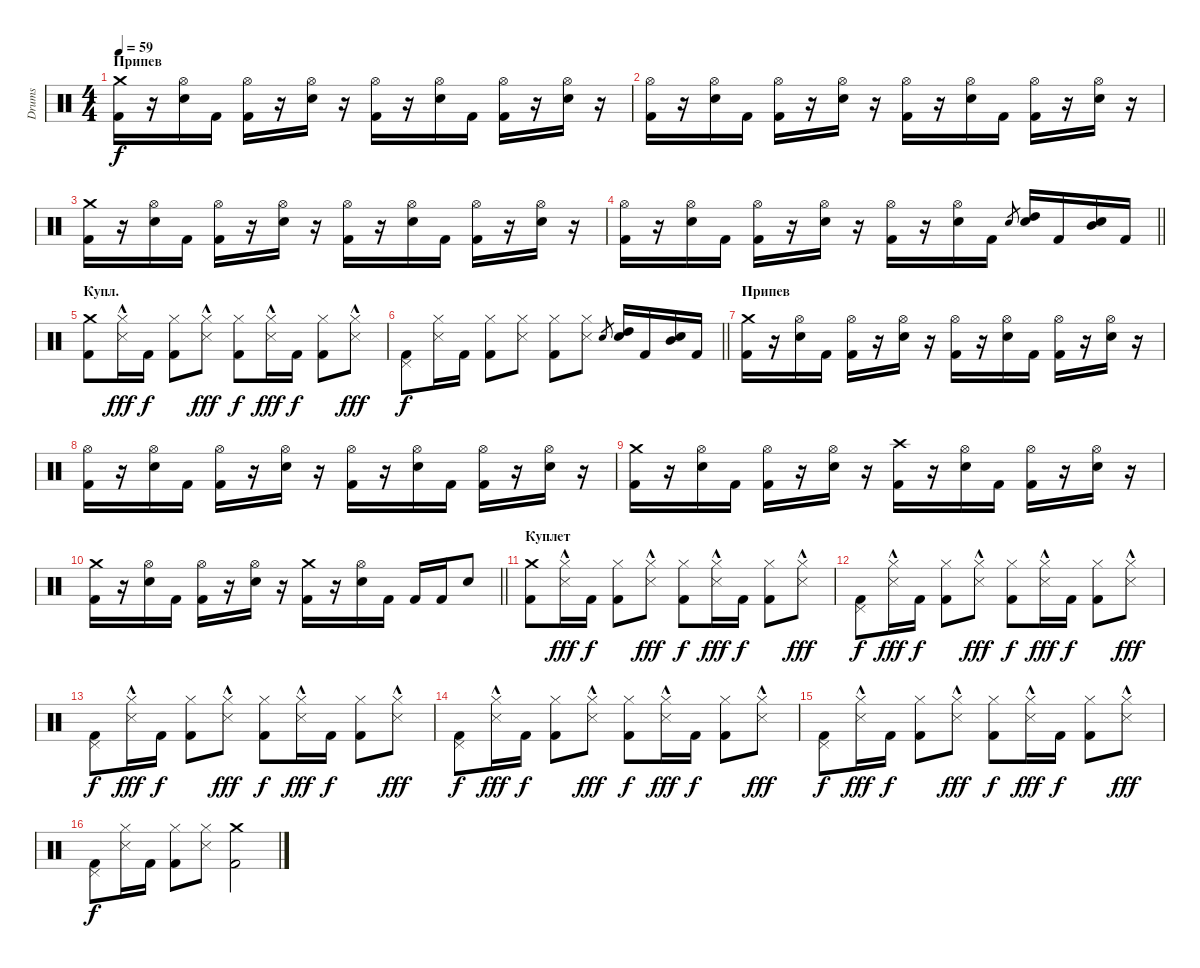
\track ("Drums" "Drums") {instrument percussion}
\staff {score}
\articulation defaults
\ts (4 4)
\section ("" "Припев")
\tempo 59
\clef neutral
\ks c
("Crash medium (hit)" "Kick (hit) 2").16{dy f} r.16 ("Hi-Hat (open)" "Snare (hit) 2").16 "Kick (hit) 2".16 ("Hi-Hat (open)" "Kick (hit) 2").16 r.16 ("Hi-Hat (open)" "Snare (hit) 2").16 r.16 ("Hi-Hat (open)" "Kick (hit) 2").16 r.16 ("Hi-Hat (open)" "Snare (hit) 2").16 "Kick (hit) 2".16 ("Hi-Hat (open)" "Kick (hit) 2").16 r.16 ("Hi-Hat (open)" "Snare (hit) 2").16 r.16 |
("Hi-Hat (open)" "Kick (hit) 2").16 r.16 ("Hi-Hat (open)" "Snare (hit) 2").16 "Kick (hit) 2".16 ("Hi-Hat (open)" "Kick (hit) 2").16 r.16 ("Hi-Hat (open)" "Snare (hit) 2").16 r.16 ("Hi-Hat (open)" "Kick (hit) 2").16 r.16 ("Hi-Hat (open)" "Snare (hit) 2").16 "Kick (hit) 2".16 ("Hi-Hat (open)" "Kick (hit) 2").16 r.16 ("Hi-Hat (open)" "Snare (hit) 2").16 r.16 |
("Crash medium (hit)" "Kick (hit) 2").16 r.16 ("Hi-Hat (open)" "Snare (hit) 2").16 "Kick (hit) 2".16 ("Hi-Hat (open)" "Kick (hit) 2").16 r.16 ("Hi-Hat (open)" "Snare (hit) 2").16 r.16 ("Hi-Hat (open)" "Kick (hit) 2").16 r.16 ("Hi-Hat (open)" "Snare (hit) 2").16 "Kick (hit) 2".16 ("Hi-Hat (open)" "Kick (hit) 2").16 r.16 ("Hi-Hat (open)" "Snare (hit) 2").16 r.16 |
\barLineRight lightlight
("Hi-Hat (open)" "Kick (hit) 2").16 r.16 ("Hi-Hat (open)" "Snare (hit) 2").16 "Kick (hit) 2".16 ("Hi-Hat (open)" "Kick (hit) 2").16 r.16 ("Hi-Hat (open)" "Snare (hit) 2").16 r.16 ("Hi-Hat (open)" "Kick (hit) 2").16 r.16 ("Hi-Hat (open)" "Snare (hit) 2").16 "Kick (hit) 2".16 "Snare (hit) 2".8{gr} ("High Tom (hit)" "Snare (hit) 2").16 "Kick (hit) 2".16 ("Mid Tom (hit)" "Snare (hit) 2").16 "Kick (hit) 2".16 |
\section ("" "Купл.")
("Kick (hit) 2" "Crash medium (hit)").8 ("Snare (side stick) 3"{hac} "Hi-Hat (closed)").16{dy fff} "Kick (hit) 2".16{dy f} ("Kick (hit) 2" "Hi-Hat (closed)").8 ("Snare (side stick) 3"{hac} "Hi-Hat (closed)").8{dy fff} ("Kick (hit) 2" "Hi-Hat (closed)").8{dy f} ("Snare (side stick) 3"{hac} "Hi-Hat (closed)").16{dy fff} "Kick (hit) 2".16{dy f} ("Kick (hit) 2" "Hi-Hat (closed)").8 ("Snare (side stick) 3"{hac} "Hi-Hat (closed)").8{dy fff} |
\barLineRight lightlight
("Kick (hit) 2" "Pedal Hi-Hat (hit)").8{dy f} ("Snare (side stick) 3" "Hi-Hat (closed)").16 "Kick (hit) 2".16 ("Kick (hit) 2" "Hi-Hat (closed)").8 ("Snare (side stick) 3" "Hi-Hat (closed)").8 ("Kick (hit) 2" "Hi-Hat (closed)").8 ("Snare (side stick) 3" "Hi-Hat (closed)").8 "Electric Snare (hit)".8{gr} ("Snare (hit) 2" "High Tom (hit)").16 "Kick (hit) 2".16 ("Snare (hit) 2" "Mid Tom (hit)").16 "Kick (hit) 2".16 |
\section ("" "Припев")
("Crash medium (hit)" "Kick (hit) 2").16 r.16 ("Hi-Hat (open)" "Snare (hit) 2").16 "Kick (hit) 2".16 ("Hi-Hat (open)" "Kick (hit) 2").16 r.16 ("Hi-Hat (open)" "Snare (hit) 2").16 r.16 ("Hi-Hat (open)" "Kick (hit) 2").16 r.16 ("Hi-Hat (open)" "Snare (hit) 2").16 "Kick (hit) 2".16 ("Hi-Hat (open)" "Kick (hit) 2").16 r.16 ("Hi-Hat (open)" "Snare (hit) 2").16 r.16 |
("Hi-Hat (open)" "Kick (hit) 2").16 r.16 ("Hi-Hat (open)" "Snare (hit) 2").16 "Kick (hit) 2".16 ("Hi-Hat (open)" "Kick (hit) 2").16 r.16 ("Hi-Hat (open)" "Snare (hit) 2").16 r.16 ("Hi-Hat (open)" "Kick (hit) 2").16 r.16 ("Hi-Hat (open)" "Snare (hit) 2").16 "Kick (hit) 2".16 ("Hi-Hat (open)" "Kick (hit) 2").16 r.16 ("Hi-Hat (open)" "Snare (hit) 2").16 r.16 |
("Crash medium (hit)" "Kick (hit) 2").16 r.16 ("Hi-Hat (open)" "Snare (hit) 2").16 "Kick (hit) 2".16 ("Hi-Hat (open)" "Kick (hit) 2").16 r.16 ("Hi-Hat (open)" "Snare (hit) 2").16 r.16 ("Crash high (hit)" "Kick (hit) 2").16 r.16 ("Hi-Hat (open)" "Snare (hit) 2").16 "Kick (hit) 2".16 ("Hi-Hat (open)" "Kick (hit) 2").16 r.16 ("Hi-Hat (open)" "Snare (hit) 2").16 r.16 |
\barLineRight lightlight
("Crash medium (hit)" "Kick (hit) 2").16 r.16 ("Hi-Hat (open)" "Snare (hit) 2").16 "Kick (hit) 2".16 ("Hi-Hat (open)" "Kick (hit) 2").16 r.16 ("Hi-Hat (open)" "Snare (hit) 2").16 r.16 ("Crash medium (hit)" "Kick (hit) 2").16 r.16 ("Hi-Hat (open)" "Snare (hit) 2").16 "Kick (hit) 2".16 "Kick (hit) 2".16 "Kick (hit) 2".16 "Snare (hit) 2".8 |
\section ("" "Куплет")
("Kick (hit) 2" "Crash medium (hit)").8 ("Snare (side stick) 3"{hac} "Hi-Hat (closed)").16{dy fff} "Kick (hit) 2".16{dy f} ("Kick (hit) 2" "Hi-Hat (closed)").8 ("Snare (side stick) 3"{hac} "Hi-Hat (closed)").8{dy fff} ("Kick (hit) 2" "Hi-Hat (closed)").8{dy f} ("Snare (side stick) 3"{hac} "Hi-Hat (closed)").16{dy fff} "Kick (hit) 2".16{dy f} ("Kick (hit) 2" "Hi-Hat (closed)").8 ("Snare (side stick) 3"{hac} "Hi-Hat (closed)").8{dy fff} |
("Kick (hit) 2" "Pedal Hi-Hat (hit)").8{dy f} ("Snare (side stick) 3"{hac} "Hi-Hat (closed)").16{dy fff} "Kick (hit) 2".16{dy f} ("Kick (hit) 2" "Hi-Hat (closed)").8 ("Snare (side stick) 3"{hac} "Hi-Hat (closed)").8{dy fff} ("Kick (hit) 2" "Hi-Hat (closed)").8{dy f} ("Snare (side stick) 3"{hac} "Hi-Hat (closed)").16{dy fff} "Kick (hit) 2".16{dy f} ("Kick (hit) 2" "Hi-Hat (closed)").8 ("Snare (side stick) 3"{hac} "Hi-Hat (closed)").8{dy fff} |
("Kick (hit) 2" "Pedal Hi-Hat (hit)").8{dy f} ("Snare (side stick) 3"{hac} "Hi-Hat (closed)").16{dy fff} "Kick (hit) 2".16{dy f} ("Kick (hit) 2" "Hi-Hat (closed)").8 ("Snare (side stick) 3"{hac} "Hi-Hat (closed)").8{dy fff} ("Kick (hit) 2" "Hi-Hat (closed)").8{dy f} ("Snare (side stick) 3"{hac} "Hi-Hat (closed)").16{dy fff} "Kick (hit) 2".16{dy f} ("Kick (hit) 2" "Hi-Hat (closed)").8 ("Snare (side stick) 3"{hac} "Hi-Hat (closed)").8{dy fff} |
("Kick (hit) 2" "Pedal Hi-Hat (hit)").8{dy f} ("Snare (side stick) 3"{hac} "Hi-Hat (closed)").16{dy fff} "Kick (hit) 2".16{dy f} ("Kick (hit) 2" "Hi-Hat (closed)").8 ("Snare (side stick) 3"{hac} "Hi-Hat (closed)").8{dy fff} ("Kick (hit) 2" "Hi-Hat (closed)").8{dy f} ("Snare (side stick) 3"{hac} "Hi-Hat (closed)").16{dy fff} "Kick (hit) 2".16{dy f} ("Kick (hit) 2" "Hi-Hat (closed)").8 ("Snare (side stick) 3"{hac} "Hi-Hat (closed)").8{dy fff} |
("Kick (hit) 2" "Pedal Hi-Hat (hit)").8{dy f} ("Snare (side stick) 3"{hac} "Hi-Hat (closed)").16{dy fff} "Kick (hit) 2".16{dy f} ("Kick (hit) 2" "Hi-Hat (closed)").8 ("Snare (side stick) 3"{hac} "Hi-Hat (closed)").8{dy fff} ("Kick (hit) 2" "Hi-Hat (closed)").8{dy f} ("Snare (side stick) 3"{hac} "Hi-Hat (closed)").16{dy fff} "Kick (hit) 2".16{dy f} ("Kick (hit) 2" "Hi-Hat (closed)").8 ("Snare (side stick) 3"{hac} "Hi-Hat (closed)").8{dy fff} |
("Kick (hit) 2" "Pedal Hi-Hat (hit)").8{dy f} ("Snare (side stick) 3" "Hi-Hat (closed)").16 "Kick (hit) 2".16 ("Kick (hit) 2" "Hi-Hat (closed)").8 ("Snare (side stick) 3" "Hi-Hat (closed)").8 ("Kick (hit) 2" "Crash medium (hit)").2
